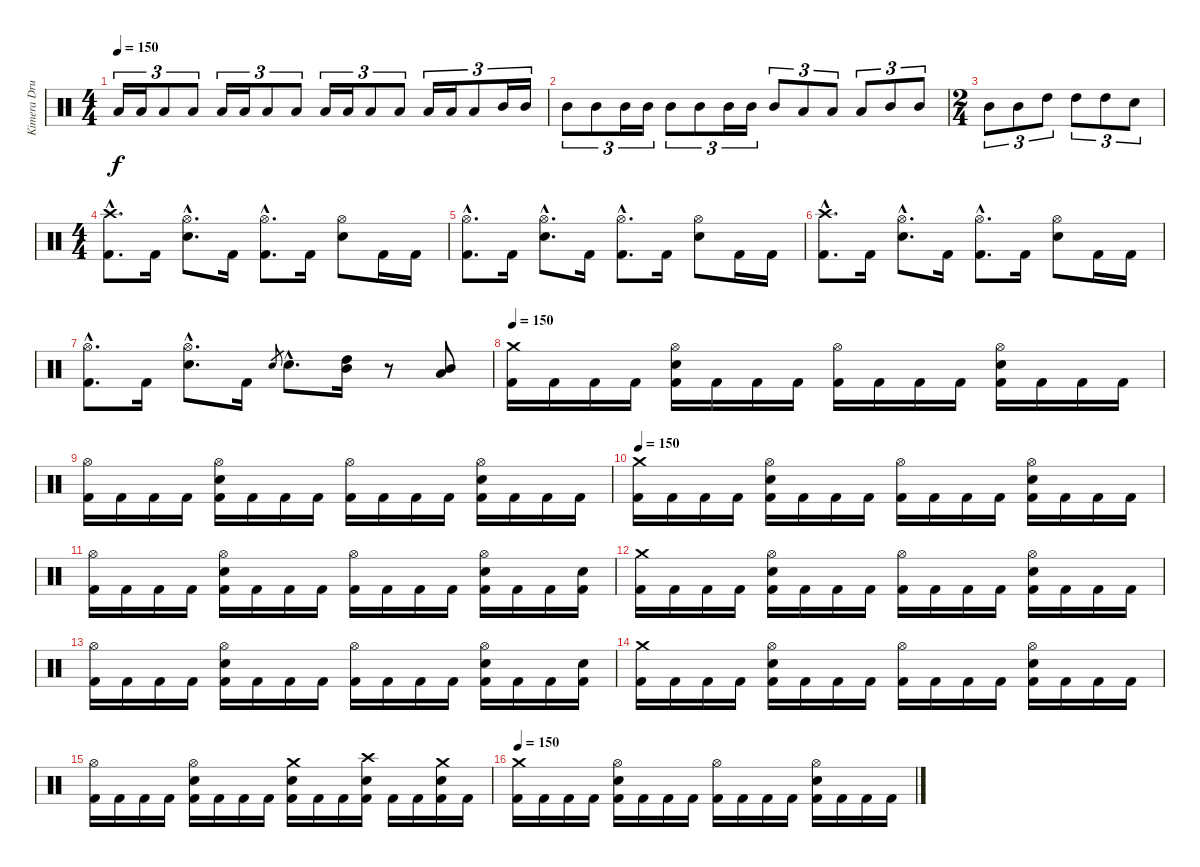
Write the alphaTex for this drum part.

\track ("Kimera Drummer" "Kimera Dru") {instrument percussion}
\staff {score}
\articulation defaults
\ts (4 4)
\tempo 150
\clef neutral
\ks c "Low Floor Tom (hit)".16{tu (3 2) dy f} "Low Floor Tom (hit)".16{tu (3 2)} "Low Floor Tom (hit)".8{tu (3 2)} "Low Floor Tom (hit)".8{tu (3 2)} "Low Floor Tom (hit)".16{tu (3 2)} "Low Floor Tom (hit)".16{tu (3 2)} "Low Floor Tom (hit)".8{tu (3 2)} "Low Floor Tom (hit)".8{tu (3 2)} "Low Floor Tom (hit)".16{tu (3 2)} "Low Floor Tom (hit)".16{tu (3 2)} "Low Floor Tom (hit)".8{tu (3 2)} "Low Floor Tom (hit)".8{tu (3 2)} "Low Floor Tom (hit)".16{tu (3 2)} "Low Floor Tom (hit)".16{tu (3 2)} "Low Floor Tom (hit)".8{tu (3 2)} "Mid Tom (hit)".16{tu (3 2)} "Mid Tom (hit)".16{tu (3 2)}
|
"Mid Tom (hit)".8{tu (3 2)} "Mid Tom (hit)".8{tu (3 2)} "Mid Tom (hit)".16{tu (3 2)} "Mid Tom (hit)".16{tu (3 2)} "Mid Tom (hit)".8{tu (3 2)} "Mid Tom (hit)".8{tu (3 2)} "Mid Tom (hit)".16{tu (3 2)} "Mid Tom (hit)".16{tu (3 2)} "Mid Tom (hit)".8{tu (3 2)} "Low Floor Tom (hit)".8{tu (3 2)} "Low Floor Tom (hit)".8{tu (3 2)} "Low Floor Tom (hit)".8{tu (3 2)} "Mid Tom (hit)".8{tu (3 2)} "Mid Tom (hit)".8{tu (3 2)} |
\ts (2 4)
"Mid Tom (hit)".8{tu (3 2)} "Mid Tom (hit)".8{tu (3 2)} "High Tom (hit)".8{tu (3 2)} "High Tom (hit)".8{tu (3 2)} "High Tom (hit)".8{tu (3 2)} "Electric Snare (hit)".8{tu (3 2)} |
\ts (4 4)
("Crash high (hit)"{hac} "Kick (hit) 2"{hac}).8{d} "Kick (hit) 2".16 ("Hi-Hat (open)"{hac} "Electric Snare (hit)"{hac}).8{d} "Kick (hit) 2".16 ("Hi-Hat (open)"{hac} "Kick (hit) 2"{hac}).8{d} "Kick (hit) 2".16 ("Hi-Hat (open)" "Electric Snare (hit)").8 "Kick (hit) 2".16 "Kick (hit) 2".16 |
("Hi-Hat (open)"{hac} "Kick (hit) 2"{hac}).8{d} "Kick (hit) 2".16 ("Hi-Hat (open)"{hac} "Electric Snare (hit)"{hac}).8{d} "Kick (hit) 2".16 ("Hi-Hat (open)"{hac} "Kick (hit) 2"{hac}).8{d} "Kick (hit) 2".16 ("Hi-Hat (open)" "Electric Snare (hit)").8 "Kick (hit) 2".16 "Kick (hit) 2".16 |
("Crash high (hit)"{hac} "Kick (hit) 2"{hac}).8{d} "Kick (hit) 2".16 ("Hi-Hat (open)"{hac} "Electric Snare (hit)"{hac}).8{d} "Kick (hit) 2".16 ("Hi-Hat (open)"{hac} "Kick (hit) 2"{hac}).8{d} "Kick (hit) 2".16 ("Hi-Hat (open)" "Electric Snare (hit)").8 "Kick (hit) 2".16 "Kick (hit) 2".16 |
("Hi-Hat (open)"{hac} "Kick (hit) 2"{hac}).8{d} "Kick (hit) 2".16 ("Hi-Hat (open)"{hac} "Electric Snare (hit)"{hac}).8{d} "Kick (hit) 2".16 "Electric Snare (hit)".8{gr} "Electric Snare (hit)"{hac}.8{d} ("High Tom (hit)" "Mid Tom (hit)").16 r.8 ("Mid Tom (hit)" "Low Floor Tom (hit)").8 |
\tempo 150
("Crash medium (hit)" "Kick (hit) 2").16 "Kick (hit) 2".16 "Kick (hit) 2".16 "Kick (hit) 2".16 ("Hi-Hat (open)" "Electric Snare (hit)" "Kick (hit) 2").16 "Kick (hit) 2".16 "Kick (hit) 2".16 "Kick (hit) 2".16 ("Hi-Hat (open)" "Kick (hit) 2").16 "Kick (hit) 2".16 "Kick (hit) 2".16 "Kick (hit) 2".16 ("Hi-Hat (open)" "Electric Snare (hit)" "Kick (hit) 2").16 "Kick (hit) 2".16 "Kick (hit) 2".16 "Kick (hit) 2".16 |
("Hi-Hat (open)" "Kick (hit) 2").16 "Kick (hit) 2".16 "Kick (hit) 2".16 "Kick (hit) 2".16 ("Hi-Hat (open)" "Electric Snare (hit)" "Kick (hit) 2").16 "Kick (hit) 2".16 "Kick (hit) 2".16 "Kick (hit) 2".16 ("Hi-Hat (open)" "Kick (hit) 2").16 "Kick (hit) 2".16 "Kick (hit) 2".16 "Kick (hit) 2".16 ("Hi-Hat (open)" "Electric Snare (hit)" "Kick (hit) 2").16 "Kick (hit) 2".16 "Kick (hit) 2".16 "Kick (hit) 2".16 |
\tempo 150
("Crash medium (hit)" "Kick (hit) 2").16 "Kick (hit) 2".16 "Kick (hit) 2".16 "Kick (hit) 2".16 ("Hi-Hat (open)" "Electric Snare (hit)" "Kick (hit) 2").16 "Kick (hit) 2".16 "Kick (hit) 2".16 "Kick (hit) 2".16 ("Hi-Hat (open)" "Kick (hit) 2").16 "Kick (hit) 2".16 "Kick (hit) 2".16 "Kick (hit) 2".16 ("Hi-Hat (open)" "Electric Snare (hit)" "Kick (hit) 2").16 "Kick (hit) 2".16 "Kick (hit) 2".16 "Kick (hit) 2".16 |
("Hi-Hat (open)" "Kick (hit) 2").16 "Kick (hit) 2".16 "Kick (hit) 2".16 "Kick (hit) 2".16 ("Hi-Hat (open)" "Electric Snare (hit)" "Kick (hit) 2").16 "Kick (hit) 2".16 "Kick (hit) 2".16 "Kick (hit) 2".16 ("Hi-Hat (open)" "Kick (hit) 2").16 "Kick (hit) 2".16 "Kick (hit) 2".16 "Kick (hit) 2".16 ("Hi-Hat (open)" "Electric Snare (hit)" "Kick (hit) 2").16 "Kick (hit) 2".16 "Kick (hit) 2".16 ("Electric Snare (hit)" "Kick (hit) 2").16 |
("Crash medium (hit)" "Kick (hit) 2").16 "Kick (hit) 2".16 "Kick (hit) 2".16 "Kick (hit) 2".16 ("Hi-Hat (open)" "Electric Snare (hit)" "Kick (hit) 2").16 "Kick (hit) 2".16 "Kick (hit) 2".16 "Kick (hit) 2".16 ("Hi-Hat (open)" "Kick (hit) 2").16 "Kick (hit) 2".16 "Kick (hit) 2".16 "Kick (hit) 2".16 ("Hi-Hat (open)" "Electric Snare (hit)" "Kick (hit) 2").16 "Kick (hit) 2".16 "Kick (hit) 2".16 "Kick (hit) 2".16 |
("Hi-Hat (open)" "Kick (hit) 2").16 "Kick (hit) 2".16 "Kick (hit) 2".16 "Kick (hit) 2".16 ("Hi-Hat (open)" "Electric Snare (hit)" "Kick (hit) 2").16 "Kick (hit) 2".16 "Kick (hit) 2".16 "Kick (hit) 2".16 ("Hi-Hat (open)" "Kick (hit) 2").16 "Kick (hit) 2".16 "Kick (hit) 2".16 "Kick (hit) 2".16 ("Hi-Hat (open)" "Electric Snare (hit)" "Kick (hit) 2").16 "Kick (hit) 2".16 "Kick (hit) 2".16 ("Electric Snare (hit)" "Kick (hit) 2").16 |
("Crash medium (hit)" "Kick (hit) 2").16 "Kick (hit) 2".16 "Kick (hit) 2".16 "Kick (hit) 2".16 ("Hi-Hat (open)" "Electric Snare (hit)" "Kick (hit) 2").16 "Kick (hit) 2".16 "Kick (hit) 2".16 "Kick (hit) 2".16 ("Hi-Hat (open)" "Kick (hit) 2").16 "Kick (hit) 2".16 "Kick (hit) 2".16 "Kick (hit) 2".16 ("Hi-Hat (open)" "Electric Snare (hit)" "Kick (hit) 2").16 "Kick (hit) 2".16 "Kick (hit) 2".16 "Kick (hit) 2".16 |
("Hi-Hat (open)" "Kick (hit) 2").16 "Kick (hit) 2".16 "Kick (hit) 2".16 "Kick (hit) 2".16 ("Hi-Hat (open)" "Electric Snare (hit)" "Kick (hit) 2").16 "Kick (hit) 2".16 "Kick (hit) 2".16 "Kick (hit) 2".16 ("Crash medium (hit)" "Electric Snare (hit)" "Kick (hit) 2").16 "Kick (hit) 2".16 "Kick (hit) 2".16 ("Crash high (hit)" "Electric Snare (hit)" "Kick (hit) 2").16 "Kick (hit) 2".16 "Kick (hit) 2".16 ("Crash medium (hit)" "Electric Snare (hit)" "Kick (hit) 2").16 "Kick (hit) 2".16 |
\tempo 150
("Crash medium (hit)" "Kick (hit) 2").16 "Kick (hit) 2".16 "Kick (hit) 2".16 "Kick (hit) 2".16 ("Hi-Hat (open)" "Electric Snare (hit)" "Kick (hit) 2").16 "Kick (hit) 2".16 "Kick (hit) 2".16 "Kick (hit) 2".16 ("Hi-Hat (open)" "Kick (hit) 2").16 "Kick (hit) 2".16 "Kick (hit) 2".16 "Kick (hit) 2".16 ("Hi-Hat (open)" "Electric Snare (hit)" "Kick (hit) 2").16 "Kick (hit) 2".16 "Kick (hit) 2".16 "Kick (hit) 2".16
